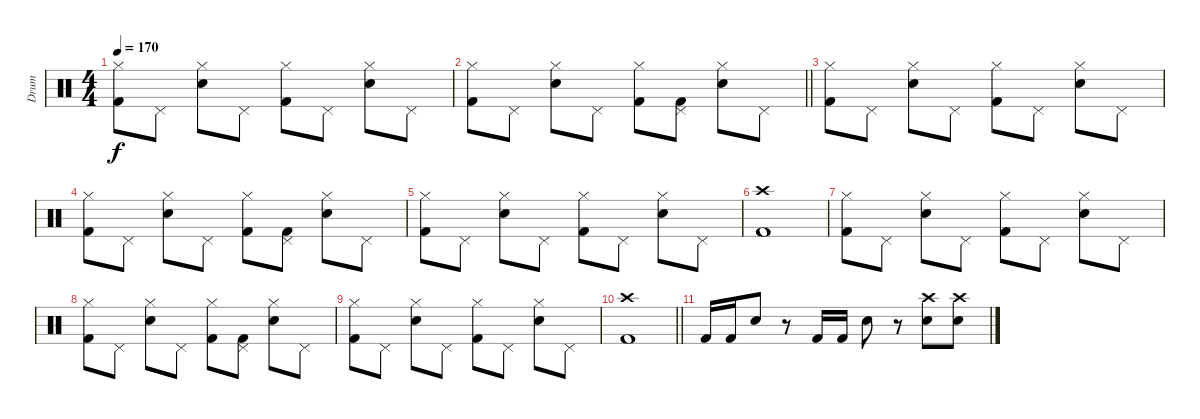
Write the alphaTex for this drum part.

\track ("Drum" "Drum") {instrument percussion}
\staff {score}
\articulation defaults
\ts (4 4)
\tempo 170
\clef neutral
\ks c
("Hi-Hat (closed)" "Kick (hit) 2").8{dy f} "Pedal Hi-Hat (hit)".8 ("Hi-Hat (closed)" "Snare (hit) 2").8 "Pedal Hi-Hat (hit)".8 ("Hi-Hat (closed)" "Kick (hit) 2").8 "Pedal Hi-Hat (hit)".8 ("Hi-Hat (closed)" "Snare (hit) 2").8 "Pedal Hi-Hat (hit)".8 |
\barLineRight lightlight
("Hi-Hat (closed)" "Kick (hit) 2").8 "Pedal Hi-Hat (hit)".8 ("Hi-Hat (closed)" "Snare (hit) 2").8 "Pedal Hi-Hat (hit)".8 ("Hi-Hat (closed)" "Kick (hit) 2").8 ("Pedal Hi-Hat (hit)" "Kick (hit) 2").8 ("Hi-Hat (closed)" "Snare (hit) 2").8 "Pedal Hi-Hat (hit)".8 |
("Hi-Hat (closed)" "Kick (hit) 2").8 "Pedal Hi-Hat (hit)".8 ("Hi-Hat (closed)" "Snare (hit) 2").8 "Pedal Hi-Hat (hit)".8 ("Hi-Hat (closed)" "Kick (hit) 2").8 "Pedal Hi-Hat (hit)".8 ("Hi-Hat (closed)" "Snare (hit) 2").8 "Pedal Hi-Hat (hit)".8 |
("Hi-Hat (closed)" "Kick (hit) 2").8 "Pedal Hi-Hat (hit)".8 ("Hi-Hat (closed)" "Snare (hit) 2").8 "Pedal Hi-Hat (hit)".8 ("Hi-Hat (closed)" "Kick (hit) 2").8 ("Pedal Hi-Hat (hit)" "Kick (hit) 2").8 ("Hi-Hat (closed)" "Snare (hit) 2").8 "Pedal Hi-Hat (hit)".8 |
("Hi-Hat (closed)" "Kick (hit) 2").8 "Pedal Hi-Hat (hit)".8 ("Hi-Hat (closed)" "Snare (hit) 2").8 "Pedal Hi-Hat (hit)".8 ("Hi-Hat (closed)" "Kick (hit) 2").8 "Pedal Hi-Hat (hit)".8 ("Hi-Hat (closed)" "Snare (hit) 2").8 "Pedal Hi-Hat (hit)".8 |
("Crash high (hit)" "Kick (hit) 2").1 |
("Hi-Hat (closed)" "Kick (hit) 2").8 "Pedal Hi-Hat (hit)".8 ("Hi-Hat (closed)" "Snare (hit) 2").8 "Pedal Hi-Hat (hit)".8 ("Hi-Hat (closed)" "Kick (hit) 2").8 "Pedal Hi-Hat (hit)".8 ("Hi-Hat (closed)" "Snare (hit) 2").8 "Pedal Hi-Hat (hit)".8 |
("Hi-Hat (closed)" "Kick (hit) 2").8 "Pedal Hi-Hat (hit)".8 ("Hi-Hat (closed)" "Snare (hit) 2").8 "Pedal Hi-Hat (hit)".8 ("Hi-Hat (closed)" "Kick (hit) 2").8 ("Pedal Hi-Hat (hit)" "Kick (hit) 2").8 ("Hi-Hat (closed)" "Snare (hit) 2").8 "Pedal Hi-Hat (hit)".8 |
("Hi-Hat (closed)" "Kick (hit) 2").8 "Pedal Hi-Hat (hit)".8 ("Hi-Hat (closed)" "Snare (hit) 2").8 "Pedal Hi-Hat (hit)".8 ("Hi-Hat (closed)" "Kick (hit) 2").8 "Pedal Hi-Hat (hit)".8 ("Hi-Hat (closed)" "Snare (hit) 2").8 "Pedal Hi-Hat (hit)".8 |
\barLineRight lightlight
("Crash high (hit)" "Kick (hit) 2").1 |
"Kick (hit) 2".16 "Kick (hit) 2".16 "Snare (hit) 2".8 r.8 "Kick (hit) 2".16 "Kick (hit) 2".16 "Snare (hit) 2".8 r.8 ("Crash high (hit)" "Snare (hit) 2").8 ("Crash high (hit)" "Snare (hit) 2").8
